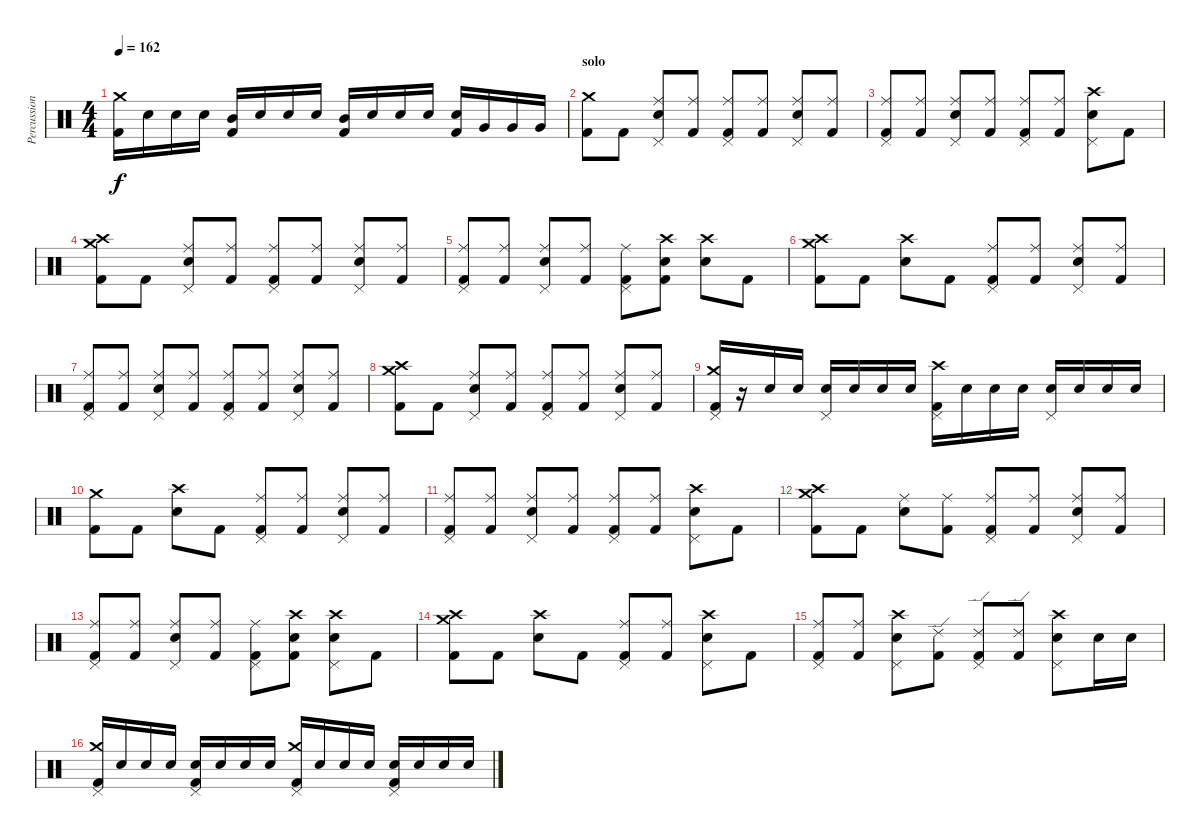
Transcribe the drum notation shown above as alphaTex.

\track ("Percussion" "Percussion") {instrument percussion}
\staff {score}
\articulation defaults
\ts (4 4)
\tempo 162
\clef neutral
\ks c
("Kick (hit) 2" "Crash medium (hit)").16{dy f} "Snare (hit) 2".16 "Snare (hit) 2".16 "Snare (hit) 2".16 ("Kick (hit) 2" "Mid Tom (hit)").16 "Snare (hit) 2".16 "Snare (hit) 2".16 "Snare (hit) 2".16 ("Kick (hit) 2" "Mid Tom (hit)").16 "Snare (hit) 2".16 "Snare (hit) 2".16 "Snare (hit) 2".16 ("Kick (hit) 2" "Snare (hit) 2").16 "Very Low Tom (hit)".16 "Very Low Tom (hit)".16 "Very Low Tom (hit)".16 |
\section ("" "solo")
("Kick (hit) 2" "Crash medium (hit)").8 "Kick (hit) 2".8 ("Snare (hit) 2" "Ride (middle)" "Pedal Hi-Hat (hit)").8 ("Kick (hit) 2" "Ride (middle)").8 ("Kick (hit) 2" "Ride (middle)" "Pedal Hi-Hat (hit)").8 ("Kick (hit) 2" "Ride (middle)").8 ("Snare (hit) 2" "Ride (middle)" "Pedal Hi-Hat (hit)").8 ("Kick (hit) 2" "Ride (middle)").8 |
("Kick (hit) 2" "Ride (middle)" "Pedal Hi-Hat (hit)").8 ("Kick (hit) 2" "Ride (middle)").8 ("Snare (hit) 2" "Ride (middle)" "Pedal Hi-Hat (hit)").8 ("Kick (hit) 2" "Ride (middle)").8 ("Kick (hit) 2" "Ride (middle)" "Pedal Hi-Hat (hit)").8 ("Kick (hit) 2" "Ride (middle)").8 ("Snare (hit) 2" "Crash high (hit)" "Pedal Hi-Hat (hit)").8 "Kick (hit) 2".8 |
("Kick (hit) 2" "Crash high (hit)" "Crash medium (hit)").8 "Kick (hit) 2".8 ("Snare (hit) 2" "Ride (middle)" "Pedal Hi-Hat (hit)").8 ("Kick (hit) 2" "Ride (middle)").8 ("Kick (hit) 2" "Ride (middle)" "Pedal Hi-Hat (hit)").8 ("Kick (hit) 2" "Ride (middle)").8 ("Snare (hit) 2" "Ride (middle)" "Pedal Hi-Hat (hit)").8 ("Kick (hit) 2" "Ride (middle)").8 |
("Kick (hit) 2" "Ride (middle)" "Pedal Hi-Hat (hit)").8 ("Kick (hit) 2" "Ride (middle)").8 ("Snare (hit) 2" "Ride (middle)" "Pedal Hi-Hat (hit)").8 ("Kick (hit) 2" "Ride (middle)").8 ("Kick (hit) 2" "Ride (middle)" "Pedal Hi-Hat (hit)").8 ("Kick (hit) 2" "Snare (hit) 2" "Crash high (hit)").8 ("Snare (hit) 2" "Crash high (hit)").8 "Kick (hit) 2".8 |
("Kick (hit) 2" "Crash medium (hit)" "Crash high (hit)").8 "Kick (hit) 2".8 ("Snare (hit) 2" "Crash high (hit)").8 "Kick (hit) 2".8 ("Kick (hit) 2" "Ride (middle)" "Pedal Hi-Hat (hit)").8 ("Kick (hit) 2" "Ride (middle)").8 ("Snare (hit) 2" "Ride (middle)" "Pedal Hi-Hat (hit)").8 ("Kick (hit) 2" "Ride (middle)").8 |
("Kick (hit) 2" "Ride (middle)" "Pedal Hi-Hat (hit)").8 ("Kick (hit) 2" "Ride (middle)").8 ("Snare (hit) 2" "Ride (middle)" "Pedal Hi-Hat (hit)").8 ("Kick (hit) 2" "Ride (middle)").8 ("Kick (hit) 2" "Ride (middle)" "Pedal Hi-Hat (hit)").8 ("Kick (hit) 2" "Ride (middle)").8 ("Snare (hit) 2" "Ride (middle)" "Pedal Hi-Hat (hit)").8 ("Kick (hit) 2" "Ride (middle)").8 |
("Kick (hit) 2" "Crash high (hit)" "Crash medium (hit)").8 "Kick (hit) 2".8 ("Snare (hit) 2" "Ride (middle)" "Pedal Hi-Hat (hit)").8 ("Kick (hit) 2" "Ride (middle)").8 ("Kick (hit) 2" "Ride (middle)" "Pedal Hi-Hat (hit)").8 ("Kick (hit) 2" "Ride (middle)").8 ("Snare (hit) 2" "Ride (middle)" "Pedal Hi-Hat (hit)").8 ("Kick (hit) 2" "Ride (middle)").8 |
("Kick (hit) 2" "Crash medium (hit)" "Pedal Hi-Hat (hit)").16 r.16 "Snare (hit) 2".16 "Snare (hit) 2".16 ("Snare (hit) 2" "Pedal Hi-Hat (hit)").16 "Snare (hit) 2".16 "Snare (hit) 2".16 "Snare (hit) 2".16 ("Kick (hit) 2" "Crash high (hit)" "Pedal Hi-Hat (hit)").16 "Snare (hit) 2".16 "Snare (hit) 2".16 "Snare (hit) 2".16 ("Snare (hit) 2" "Pedal Hi-Hat (hit)").16 "Snare (hit) 2".16 "Snare (hit) 2".16 "Snare (hit) 2".16 |
("Kick (hit) 2" "Crash medium (hit)").8 "Kick (hit) 2".8 ("Snare (hit) 2" "Crash high (hit)").8 "Kick (hit) 2".8 ("Kick (hit) 2" "Ride (middle)" "Pedal Hi-Hat (hit)").8 ("Kick (hit) 2" "Ride (middle)").8 ("Snare (hit) 2" "Ride (middle)" "Pedal Hi-Hat (hit)").8 ("Kick (hit) 2" "Ride (middle)").8 |
("Kick (hit) 2" "Ride (middle)" "Pedal Hi-Hat (hit)").8 ("Kick (hit) 2" "Ride (middle)").8 ("Snare (hit) 2" "Ride (middle)" "Pedal Hi-Hat (hit)").8 ("Kick (hit) 2" "Ride (middle)").8 ("Kick (hit) 2" "Ride (middle)" "Pedal Hi-Hat (hit)").8 ("Kick (hit) 2" "Ride (middle)").8 ("Snare (hit) 2" "Crash high (hit)" "Pedal Hi-Hat (hit)").8 "Kick (hit) 2".8 |
("Kick (hit) 2" "Crash high (hit)" "Crash medium (hit)").8 "Kick (hit) 2".8 ("Snare (hit) 2" "Ride (middle)").8 ("Kick (hit) 2" "Ride (middle)").8 ("Kick (hit) 2" "Ride (middle)" "Pedal Hi-Hat (hit)").8 ("Kick (hit) 2" "Ride (middle)").8 ("Snare (hit) 2" "Ride (middle)" "Pedal Hi-Hat (hit)").8 ("Kick (hit) 2" "Ride (middle)").8 |
("Kick (hit) 2" "Ride (middle)" "Pedal Hi-Hat (hit)").8 ("Kick (hit) 2" "Ride (middle)").8 ("Snare (hit) 2" "Ride (middle)" "Pedal Hi-Hat (hit)").8 ("Kick (hit) 2" "Ride (middle)").8 ("Kick (hit) 2" "Ride (middle)" "Pedal Hi-Hat (hit)").8 ("Kick (hit) 2" "Snare (hit) 2" "Crash high (hit)").8 ("Snare (hit) 2" "Crash high (hit)" "Pedal Hi-Hat (hit)").8 "Kick (hit) 2".8 |
("Kick (hit) 2" "Crash high (hit)" "Crash medium (hit)").8 "Kick (hit) 2".8 ("Snare (hit) 2" "Crash high (hit)").8 "Kick (hit) 2".8 ("Kick (hit) 2" "Ride (middle)" "Pedal Hi-Hat (hit)").8 ("Kick (hit) 2" "Ride (middle)").8 ("Snare (hit) 2" "Crash high (hit)" "Pedal Hi-Hat (hit)").8 "Kick (hit) 2".8 |
("Kick (hit) 2" "Ride (middle)" "Pedal Hi-Hat (hit)").8 ("Kick (hit) 2" "Ride (middle)").8 ("Snare (hit) 2" "Crash high (hit)" "Pedal Hi-Hat (hit)").8 ("Kick (hit) 2" "Ride (edge) 2").8 ("Kick (hit) 2" "Ride (edge) 2" "Pedal Hi-Hat (hit)").8 ("Kick (hit) 2" "Ride (edge) 2").8 ("Snare (hit) 2" "Crash high (hit)" "Pedal Hi-Hat (hit)").8 "Snare (hit) 2".16 "Snare (hit) 2".16 |
("Kick (hit) 2" "Crash medium (hit)" "Pedal Hi-Hat (hit)").16 "Snare (hit) 2".16 "Snare (hit) 2".16 "Snare (hit) 2".16 ("Kick (hit) 2" "Snare (hit) 2" "Pedal Hi-Hat (hit)").16 "Snare (hit) 2".16 "Snare (hit) 2".16 "Snare (hit) 2".16 ("Kick (hit) 2" "Crash medium (hit)" "Pedal Hi-Hat (hit)").16 "Snare (hit) 2".16 "Snare (hit) 2".16 "Snare (hit) 2".16 ("Kick (hit) 2" "Snare (hit) 2" "Pedal Hi-Hat (hit)").16 "Snare (hit) 2".16 "Snare (hit) 2".16 "Snare (hit) 2".16
